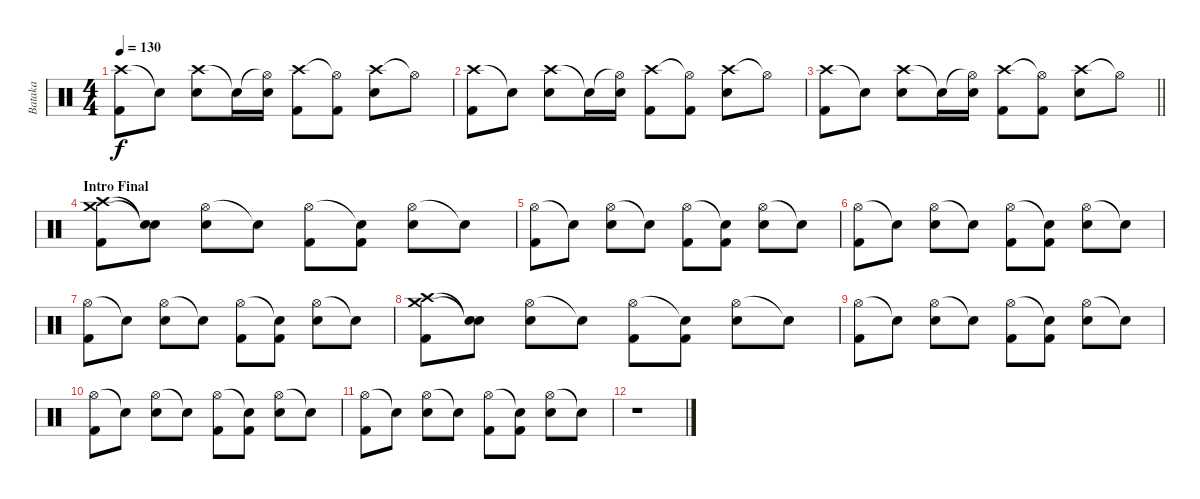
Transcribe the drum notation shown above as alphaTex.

\track ("Bataka" "Bataka") {instrument percussion}
\staff {score}
\articulation defaults
\ts (4 4)
\tempo 130
\clef neutral
\ks c
("Crash high (hit)" "Kick (hit) 2").8{dy f} "Snare (hit)"{t}.8 ("Crash high (hit)" "Electric Snare (hit)").8 "Snare (hit)"{t}.16 ("Hi-Hat (open)"{t} "Electric Snare (hit)").16 ("Crash high (hit)" "Kick (hit) 2").8 ("Hi-Hat (open)"{t} "Kick (hit) 2").8 ("Crash high (hit)" "Electric Snare (hit)").8 "Hi-Hat (open)"{t}.8 |
("Crash high (hit)" "Kick (hit) 2").8 "Snare (hit)"{t}.8 ("Crash high (hit)" "Electric Snare (hit)").8 "Snare (hit)"{t}.16 ("Hi-Hat (open)"{t} "Electric Snare (hit)").16 ("Crash high (hit)" "Kick (hit) 2").8 ("Hi-Hat (open)"{t} "Kick (hit) 2").8 ("Crash high (hit)" "Electric Snare (hit)").8 "Hi-Hat (open)"{t}.8 |
\barLineRight lightlight
("Crash high (hit)" "Kick (hit) 2").8 "Snare (hit)"{t}.8 ("Crash high (hit)" "Electric Snare (hit)").8 "Snare (hit)"{t}.16 ("Hi-Hat (open)"{t} "Electric Snare (hit)").16 ("Crash high (hit)" "Kick (hit) 2").8 ("Hi-Hat (open)"{t} "Kick (hit) 2").8 ("Crash high (hit)" "Electric Snare (hit)").8 "Hi-Hat (open)"{t}.8 |
\section ("" "Intro Final")
("Crash medium (hit)" "Crash high (hit)" "Kick (hit) 2").8 ("Snare (hit)"{t} "Snare (hit)"{t}).8 ("Hi-Hat (open)" "Electric Snare (hit)").8 "Snare (hit)"{t}.8 ("Hi-Hat (open)" "Kick (hit) 2").8 ("Snare (hit)"{t} "Kick (hit) 2").8 ("Hi-Hat (open)" "Electric Snare (hit)").8 "Snare (hit)"{t}.8 |
("Hi-Hat (open)" "Kick (hit) 2").8 "Snare (hit)"{t}.8 ("Hi-Hat (open)" "Electric Snare (hit)").8 "Snare (hit)"{t}.8 ("Hi-Hat (open)" "Kick (hit) 2").8 ("Snare (hit)"{t} "Kick (hit) 2").8 ("Hi-Hat (open)" "Electric Snare (hit)").8 "Snare (hit)"{t}.8 |
("Hi-Hat (open)" "Kick (hit) 2").8 "Snare (hit)"{t}.8 ("Hi-Hat (open)" "Electric Snare (hit)").8 "Snare (hit)"{t}.8 ("Hi-Hat (open)" "Kick (hit) 2").8 ("Snare (hit)"{t} "Kick (hit) 2").8 ("Hi-Hat (open)" "Electric Snare (hit)").8 "Snare (hit)"{t}.8 |
("Hi-Hat (open)" "Kick (hit) 2").8 "Snare (hit)"{t}.8 ("Hi-Hat (open)" "Electric Snare (hit)").8 "Snare (hit)"{t}.8 ("Hi-Hat (open)" "Kick (hit) 2").8 ("Snare (hit)"{t} "Kick (hit) 2").8 ("Hi-Hat (open)" "Electric Snare (hit)").8 "Snare (hit)"{t}.8 |
("Crash medium (hit)" "Crash high (hit)" "Kick (hit) 2").8 ("Snare (hit)"{t} "Snare (hit)"{t}).8 ("Hi-Hat (open)" "Electric Snare (hit)").8 "Snare (hit)"{t}.8 ("Hi-Hat (open)" "Kick (hit) 2").8 ("Snare (hit)"{t} "Kick (hit) 2").8 ("Hi-Hat (open)" "Electric Snare (hit)").8 "Snare (hit)"{t}.8 |
("Hi-Hat (open)" "Kick (hit) 2").8 "Snare (hit)"{t}.8 ("Hi-Hat (open)" "Electric Snare (hit)").8 "Snare (hit)"{t}.8 ("Hi-Hat (open)" "Kick (hit) 2").8 ("Snare (hit)"{t} "Kick (hit) 2").8 ("Hi-Hat (open)" "Electric Snare (hit)").8 "Snare (hit)"{t}.8 |
("Hi-Hat (open)" "Kick (hit) 2").8 "Snare (hit)"{t}.8 ("Hi-Hat (open)" "Electric Snare (hit)").8 "Snare (hit)"{t}.8 ("Hi-Hat (open)" "Kick (hit) 2").8 ("Snare (hit)"{t} "Kick (hit) 2").8 ("Hi-Hat (open)" "Electric Snare (hit)").8 "Snare (hit)"{t}.8 |
("Hi-Hat (open)" "Kick (hit) 2").8 "Snare (hit)"{t}.8 ("Hi-Hat (open)" "Electric Snare (hit)").8 "Snare (hit)"{t}.8 ("Hi-Hat (open)" "Kick (hit) 2").8 ("Snare (hit)"{t} "Kick (hit) 2").8 ("Hi-Hat (open)" "Electric Snare (hit)").8 "Snare (hit)"{t}.8 |
r.1
